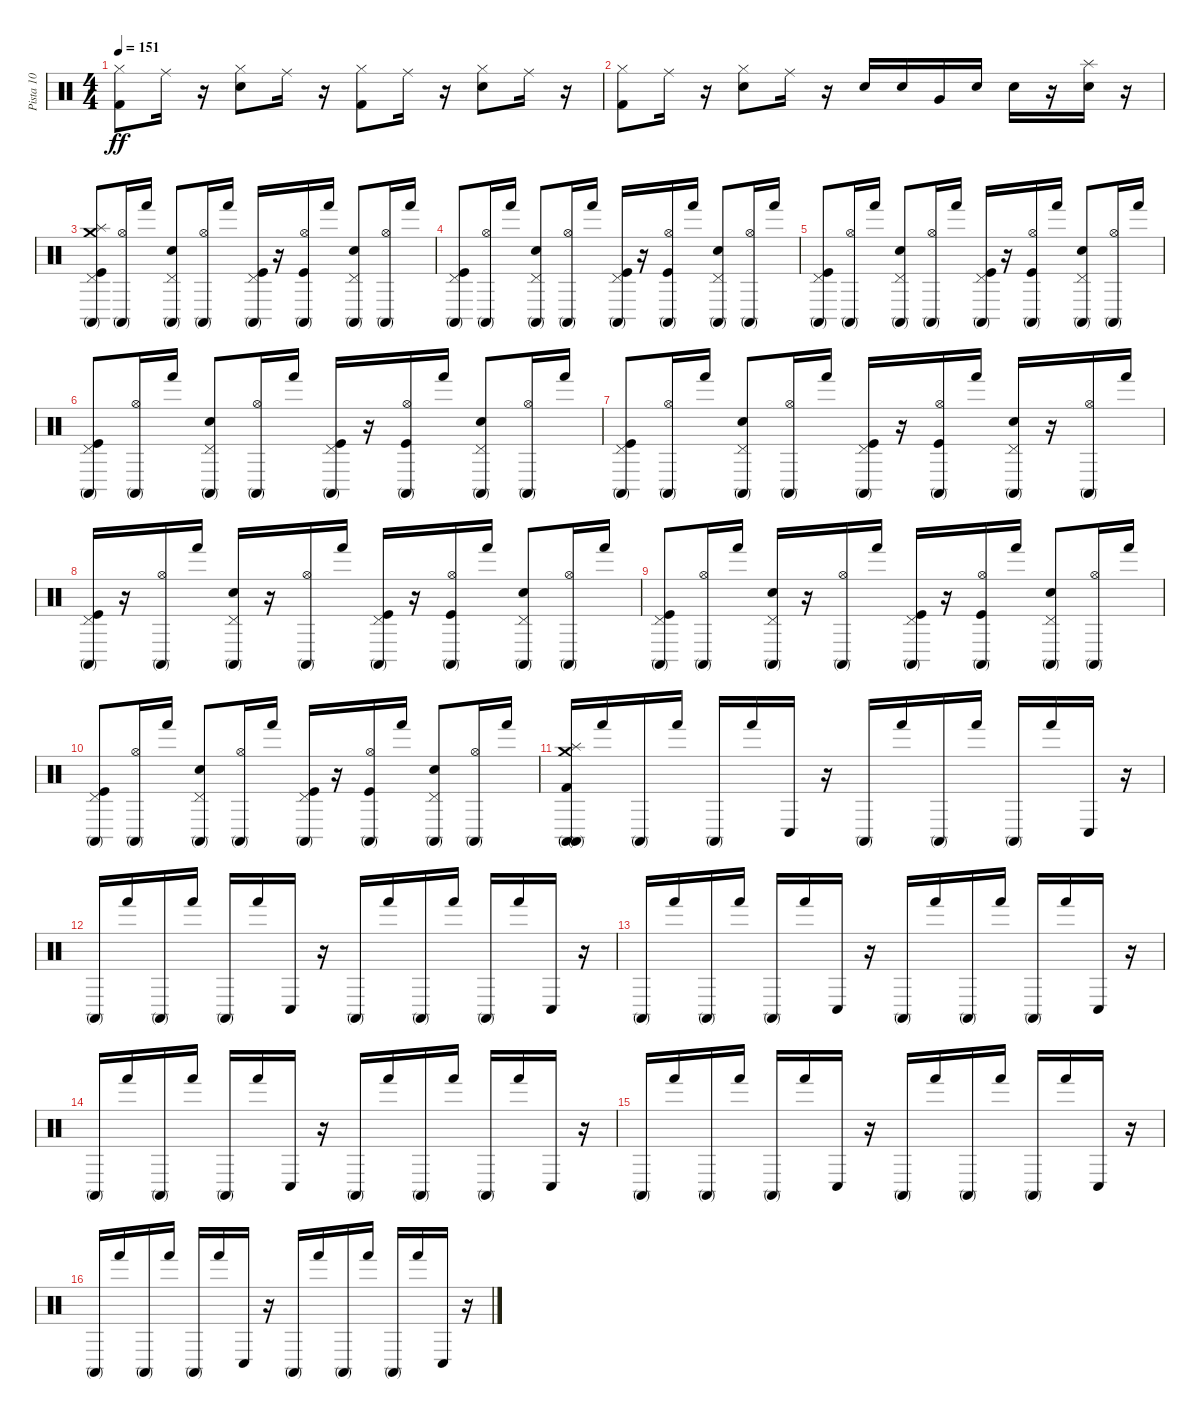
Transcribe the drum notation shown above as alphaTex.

\track ("Pista 10" "Pista 10") {instrument percussion}
\staff {score}
\articulation defaults
\ts (4 4)
\tempo 151
\clef neutral
\ks c
("Hi-Hat (closed)" "Kick (hit) 2").8{dy ff} "Ride (middle)".16 r.16 ("Snare (hit) 2" "Hi-Hat (closed)").8 "Ride (middle)".16 r.16 ("Kick (hit) 2" "Hi-Hat (closed)").8 "Ride (middle)".16 r.16 ("Snare (hit) 2" "Hi-Hat (closed)").8 "Ride (middle)".16 r.16 |
("Hi-Hat (closed)" "Kick (hit) 2").8 "Ride (middle)".16 r.16 ("Hi-Hat (closed)" "Snare (hit) 2").8 "Ride (middle)".16 r.16 "Snare (hit) 2".16 "Snare (hit) 2".16 "Very Low Tom (hit)".16 "Snare (hit) 2".16 "Snare (hit) 2".16 r.16 ("Snare (hit) 2" "Splash (hit)").16 r.16 |
("Conga high (mute)" "Kick (hit)" "Pedal Hi-Hat (hit)" "Splash (hit)" "Crash medium (hit)").8 ("Conga high (mute)" "Hi-Hat (open)").16 "Hand (hit)".16 ("Conga high (mute)" "Electric Snare (hit)" "Pedal Hi-Hat (hit)").8 ("Conga high (mute)" "Hi-Hat (open)").16 "Hand (hit)".16 ("Conga high (mute)" "Kick (hit)" "Pedal Hi-Hat (hit)").16 r.16 ("Conga high (mute)" "Kick (hit)" "Hi-Hat (open)").16 "Hand (hit)".16 ("Pedal Hi-Hat (hit)" "Electric Snare (hit)" "Conga high (mute)").8 ("Hi-Hat (open)" "Conga high (mute)").16 "Hand (hit)".16 |
("Pedal Hi-Hat (hit)" "Kick (hit)" "Conga high (mute)").8 ("Hi-Hat (open)" "Conga high (mute)").16 "Hand (hit)".16 ("Pedal Hi-Hat (hit)" "Electric Snare (hit)" "Conga high (mute)").8 ("Hi-Hat (open)" "Conga high (mute)").16 "Hand (hit)".16 ("Conga high (mute)" "Kick (hit)" "Pedal Hi-Hat (hit)").16 r.16 ("Conga high (mute)" "Kick (hit)" "Hi-Hat (open)").16 "Hand (hit)".16 ("Conga high (mute)" "Electric Snare (hit)" "Pedal Hi-Hat (hit)").8 ("Conga high (mute)" "Hi-Hat (open)").16 "Hand (hit)".16 |
("Conga high (mute)" "Kick (hit)" "Pedal Hi-Hat (hit)").8 ("Conga high (mute)" "Hi-Hat (open)").16 "Hand (hit)".16 ("Conga high (mute)" "Electric Snare (hit)" "Pedal Hi-Hat (hit)").8 ("Conga high (mute)" "Hi-Hat (open)").16 "Hand (hit)".16 ("Conga high (mute)" "Kick (hit)" "Pedal Hi-Hat (hit)").16 r.16 ("Conga high (mute)" "Kick (hit)" "Hi-Hat (open)").16 "Hand (hit)".16 ("Conga high (mute)" "Electric Snare (hit)" "Pedal Hi-Hat (hit)").8 ("Conga high (mute)" "Hi-Hat (open)").16 "Hand (hit)".16 |
("Conga high (mute)" "Kick (hit)" "Pedal Hi-Hat (hit)").8 ("Conga high (mute)" "Hi-Hat (open)").16 "Hand (hit)".16 ("Pedal Hi-Hat (hit)" "Electric Snare (hit)" "Conga high (mute)").8 ("Hi-Hat (open)" "Conga high (mute)").16 "Hand (hit)".16 ("Pedal Hi-Hat (hit)" "Kick (hit)" "Conga high (mute)").16 r.16 ("Hi-Hat (open)" "Kick (hit)" "Conga high (mute)").16 "Hand (hit)".16 ("Pedal Hi-Hat (hit)" "Electric Snare (hit)" "Conga high (mute)").8 ("Hi-Hat (open)" "Conga high (mute)").16 "Hand (hit)".16 |
("Conga high (mute)" "Kick (hit)" "Pedal Hi-Hat (hit)").8 ("Conga high (mute)" "Hi-Hat (open)").16 "Hand (hit)".16 ("Conga high (mute)" "Electric Snare (hit)" "Pedal Hi-Hat (hit)").8 ("Conga high (mute)" "Hi-Hat (open)").16 "Hand (hit)".16 ("Conga high (mute)" "Kick (hit)" "Pedal Hi-Hat (hit)").16 r.16 ("Conga high (mute)" "Kick (hit)" "Hi-Hat (open)").16 "Hand (hit)".16 ("Conga high (mute)" "Electric Snare (hit)" "Pedal Hi-Hat (hit)").16 r.16 ("Conga high (mute)" "Hi-Hat (open)").16 "Hand (hit)".16 |
("Conga high (mute)" "Kick (hit)" "Pedal Hi-Hat (hit)").16 r.16 ("Conga high (mute)" "Hi-Hat (open)").16 "Hand (hit)".16 ("Conga high (mute)" "Electric Snare (hit)" "Pedal Hi-Hat (hit)").16 r.16 ("Conga high (mute)" "Hi-Hat (open)").16 "Hand (hit)".16 ("Conga high (mute)" "Kick (hit)" "Pedal Hi-Hat (hit)").16 r.16 ("Conga high (mute)" "Kick (hit)" "Hi-Hat (open)").16 "Hand (hit)".16 ("Pedal Hi-Hat (hit)" "Electric Snare (hit)" "Conga high (mute)").8 ("Hi-Hat (open)" "Conga high (mute)").16 "Hand (hit)".16 |
("Pedal Hi-Hat (hit)" "Kick (hit)" "Conga high (mute)").8 ("Hi-Hat (open)" "Conga high (mute)").16 "Hand (hit)".16 ("Pedal Hi-Hat (hit)" "Electric Snare (hit)" "Conga high (mute)").16 r.16 ("Hi-Hat (open)" "Conga high (mute)").16 "Hand (hit)".16 ("Conga high (mute)" "Kick (hit)" "Pedal Hi-Hat (hit)").16 r.16 ("Conga high (mute)" "Kick (hit)" "Hi-Hat (open)").16 "Hand (hit)".16 ("Conga high (mute)" "Electric Snare (hit)" "Pedal Hi-Hat (hit)").8 ("Conga high (mute)" "Hi-Hat (open)").16 "Hand (hit)".16 |
("Conga high (mute)" "Kick (hit)" "Pedal Hi-Hat (hit)").8 ("Conga high (mute)" "Hi-Hat (open)").16 "Hand (hit)".16 ("Conga high (mute)" "Electric Snare (hit)" "Pedal Hi-Hat (hit)").8 ("Conga high (mute)" "Hi-Hat (open)").16 "Hand (hit)".16 ("Conga high (mute)" "Kick (hit)" "Pedal Hi-Hat (hit)").16 r.16 ("Conga high (mute)" "Kick (hit)" "Hi-Hat (open)").16 "Hand (hit)".16 ("Conga high (mute)" "Electric Snare (hit)" "Pedal Hi-Hat (hit)").8 ("Conga high (mute)" "Hi-Hat (open)").16 "Hand (hit)".16 |
("Conga high (mute)" "Conga high (mute)" "Crash medium (hit)" "Splash (hit)" "Kick (hit) 2").16 "Hand (hit)".16 "Conga high (mute)".16 "Hand (hit)".16 "Conga high (mute)".16 "Hand (hit)".16 "Conga low (hit)".16 r.16 "Conga high (mute)".16 "Hand (hit)".16 "Conga high (mute)".16 "Hand (hit)".16 "Conga high (mute)".16 "Hand (hit)".16 "Conga low (hit)".16 r.16 |
"Conga high (mute)".16 "Hand (hit)".16 "Conga high (mute)".16 "Hand (hit)".16 "Conga high (mute)".16 "Hand (hit)".16 "Conga low (hit)".16 r.16 "Conga high (mute)".16 "Hand (hit)".16 "Conga high (mute)".16 "Hand (hit)".16 "Conga high (mute)".16 "Hand (hit)".16 "Conga low (hit)".16 r.16 |
"Conga high (mute)".16 "Hand (hit)".16 "Conga high (mute)".16 "Hand (hit)".16 "Conga high (mute)".16 "Hand (hit)".16 "Conga low (hit)".16 r.16 "Conga high (mute)".16 "Hand (hit)".16 "Conga high (mute)".16 "Hand (hit)".16 "Conga high (mute)".16 "Hand (hit)".16 "Conga low (hit)".16 r.16 |
"Conga high (mute)".16 "Hand (hit)".16 "Conga high (mute)".16 "Hand (hit)".16 "Conga high (mute)".16 "Hand (hit)".16 "Conga low (hit)".16 r.16 "Conga high (mute)".16 "Hand (hit)".16 "Conga high (mute)".16 "Hand (hit)".16 "Conga high (mute)".16 "Hand (hit)".16 "Conga low (hit)".16 r.16 |
"Conga high (mute)".16 "Hand (hit)".16 "Conga high (mute)".16 "Hand (hit)".16 "Conga high (mute)".16 "Hand (hit)".16 "Conga low (hit)".16 r.16 "Conga high (mute)".16 "Hand (hit)".16 "Conga high (mute)".16 "Hand (hit)".16 "Conga high (mute)".16 "Hand (hit)".16 "Conga low (hit)".16 r.16 |
"Conga high (mute)".16 "Hand (hit)".16 "Conga high (mute)".16 "Hand (hit)".16 "Conga high (mute)".16 "Hand (hit)".16 "Conga low (hit)".16 r.16 "Conga high (mute)".16 "Hand (hit)".16 "Conga high (mute)".16 "Hand (hit)".16 "Conga high (mute)".16 "Hand (hit)".16 "Conga low (hit)".16 r.16
